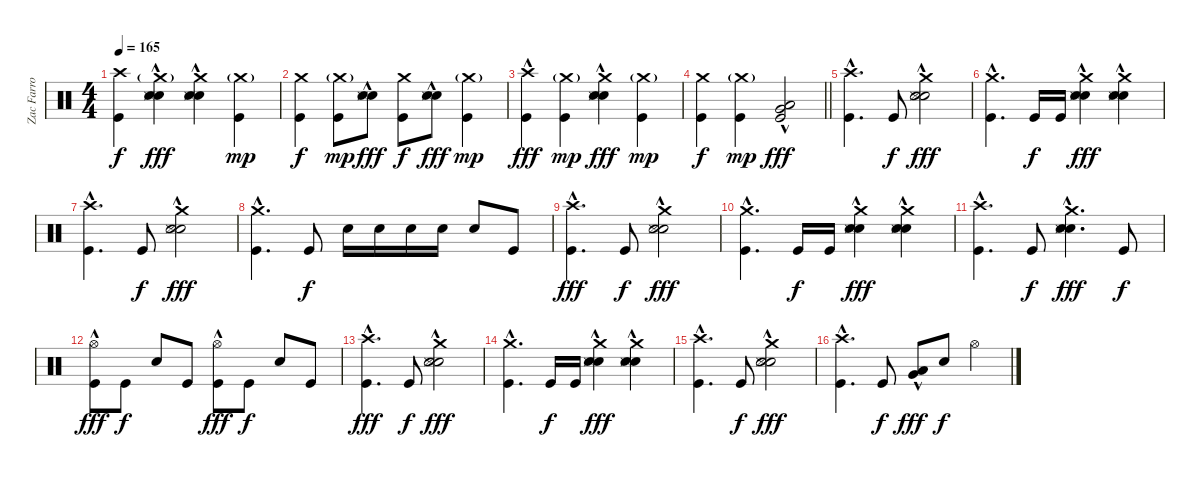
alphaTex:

\track ("Zac Farro (Drums)" "Zac Farro ") {instrument percussion}
\staff {score}
\articulation defaults
\ts (4 4)
\tempo 165
\clef neutral
\ks c
("Crash high (hit)" "Kick (hit)").4{dy f} ("Crash medium (hit)"{g} "Snare (hit) 2"{hac} "Snare (side stick) 3"{hac} "Electric Snare (hit)"{hac}).4{dy fff} ("Crash medium (hit)"{hac} "Snare (hit) 2"{hac} "Snare (side stick) 3"{hac} "Electric Snare (hit)"{hac}).4 ("Crash medium (hit)"{g} "Kick (hit)").4{dy mp} |
("Crash medium (hit)" "Kick (hit)").4{dy f} ("Crash medium (hit)"{g} "Kick (hit)").8{dy mp} ("Snare (hit) 2"{hac} "Snare (side stick) 3"{hac} "Electric Snare (hit)"{hac}).8{dy fff} ("Crash medium (hit)" "Kick (hit)").8{dy f} ("Snare (hit) 2"{hac} "Snare (side stick) 3"{hac} "Electric Snare (hit)"{hac}).8{dy fff} ("Crash medium (hit)"{g} "Kick (hit)").4{dy mp} |
("Crash high (hit)"{hac} "Kick (hit)"{hac}).4{dy fff} ("Crash medium (hit)"{g} "Kick (hit)").4{dy mp} ("Crash medium (hit)"{hac} "Snare (hit) 2"{hac} "Snare (side stick) 3"{hac} "Electric Snare (hit)"{hac}).4{dy fff} ("Crash medium (hit)"{g} "Kick (hit)").4{dy mp} |
\barLineRight lightlight
("Crash medium (hit)" "Kick (hit)").4{dy f} ("Crash medium (hit)"{g} "Kick (hit)").4{dy mp} ("Very Low Tom (hit)"{hac} "Low Floor Tom (hit)"{hac} "Kick (hit)"{hac}).2{dy fff} |
("Crash high (hit)"{hac} "Kick (hit)"{hac}).4{d} "Kick (hit)".8{dy f} ("Crash medium (hit)"{hac} "Snare (hit) 2"{hac} "Snare (side stick) 3"{hac} "Electric Snare (hit)"{hac}).2{dy fff} |
("Crash medium (hit)"{hac} "Kick (hit)"{hac}).4{d} "Kick (hit)".16{dy f} "Kick (hit)".16 ("Crash medium (hit)"{hac} "Snare (hit) 2"{hac} "Snare (side stick) 3"{hac} "Electric Snare (hit)"{hac}).4{dy fff} ("Crash medium (hit)"{hac} "Snare (hit) 2"{hac} "Snare (side stick) 3"{hac} "Electric Snare (hit)"{hac}).4 |
("Crash high (hit)"{hac} "Kick (hit)"{hac}).4{d} "Kick (hit)".8{dy f} ("Crash medium (hit)"{hac} "Snare (hit) 2"{hac} "Snare (side stick) 3"{hac} "Electric Snare (hit)"{hac}).2{dy fff} |
("Crash medium (hit)"{hac} "Kick (hit)"{hac}).4{d} "Kick (hit)".8{dy f} "Electric Snare (hit)".16 "Electric Snare (hit)".16 "Electric Snare (hit)".16 "Electric Snare (hit)".16 "Electric Snare (hit)".8 "Kick (hit)".8 |
("Crash high (hit)"{hac} "Kick (hit)"{hac}).4{d dy fff} "Kick (hit)".8{dy f} ("Crash medium (hit)"{hac} "Snare (hit) 2"{hac} "Snare (side stick) 3"{hac} "Electric Snare (hit)"{hac}).2{dy fff} |
("Crash medium (hit)"{hac} "Kick (hit)"{hac}).4{d} "Kick (hit)".16{dy f} "Kick (hit)".16 ("Crash medium (hit)"{hac} "Snare (hit) 2"{hac} "Snare (side stick) 3"{hac} "Electric Snare (hit)"{hac}).4{dy fff} ("Crash medium (hit)"{hac} "Snare (hit) 2"{hac} "Snare (side stick) 3"{hac} "Electric Snare (hit)"{hac}).4 |
("Crash high (hit)"{hac} "Kick (hit)"{hac}).4{d} "Kick (hit)".8{dy f} ("Crash medium (hit)"{hac} "Snare (hit) 2"{hac} "Snare (side stick) 3"{hac} "Electric Snare (hit)"{hac}).4{d dy fff} "Kick (hit)".8{dy f} |
("Hi-Hat (open)"{hac} "Kick (hit)"{hac}).8{dy fff} "Kick (hit)".8{dy f} "Electric Snare (hit)".8 "Kick (hit)".8 ("Hi-Hat (open)"{hac} "Kick (hit)"{hac}).8{dy fff} "Kick (hit)".8{dy f} "Electric Snare (hit)".8 "Kick (hit)".8 |
("Crash high (hit)"{hac} "Kick (hit)"{hac}).4{d dy fff} "Kick (hit)".8{dy f} ("Crash medium (hit)"{hac} "Snare (hit) 2"{hac} "Snare (side stick) 3"{hac} "Electric Snare (hit)"{hac}).2{dy fff} |
("Crash medium (hit)"{hac} "Kick (hit)"{hac}).4{d} "Kick (hit)".16{dy f} "Kick (hit)".16 ("Crash medium (hit)"{hac} "Snare (hit) 2"{hac} "Snare (side stick) 3"{hac} "Electric Snare (hit)"{hac}).4{dy fff} ("Crash medium (hit)"{hac} "Snare (hit) 2"{hac} "Snare (side stick) 3"{hac} "Electric Snare (hit)"{hac}).4 |
("Crash high (hit)"{hac} "Kick (hit)"{hac}).4{d} "Kick (hit)".8{dy f} ("Crash medium (hit)"{hac} "Snare (hit) 2"{hac} "Snare (side stick) 3"{hac} "Electric Snare (hit)"{hac}).2{dy fff} |
("Crash high (hit)"{hac} "Kick (hit)"{hac}).4{d} "Kick (hit)".8{dy f} ("Very Low Tom (hit)"{hac} "Low Floor Tom (hit)"{hac}).8{dy fff} "Electric Snare (hit)".8{dy f} "Hi-Hat (open)".4
